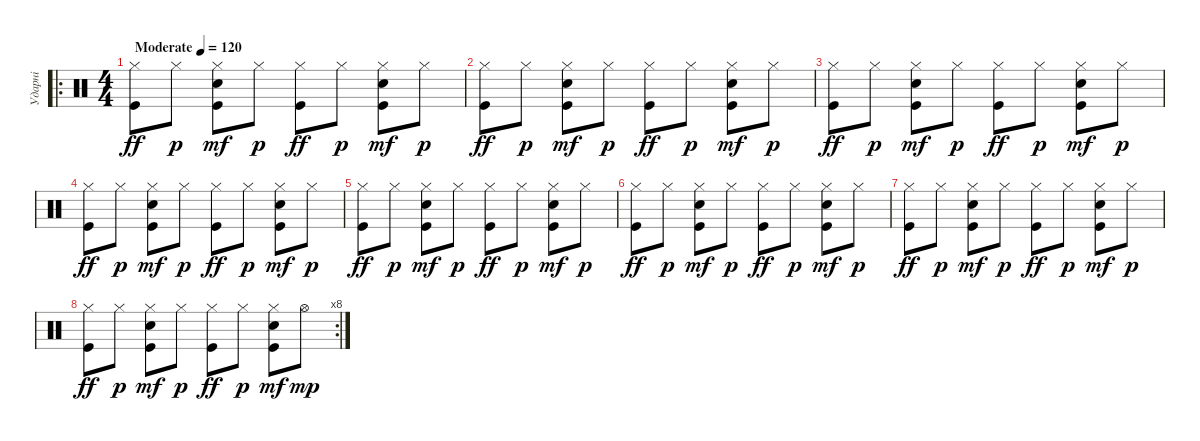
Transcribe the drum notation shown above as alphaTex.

\track ("Ударні" "Ударні") {instrument percussion}
\staff {score}
\articulation defaults
\ro
\ts (4 4)
\tempo (120 "Moderate")
\clef neutral
\ks c
("Hi-Hat (closed)" "Kick (hit)").8{dy ff} "Hi-Hat (closed)".8{dy p} ("Hi-Hat (closed)" "Snare (hit) 2" "Kick (hit)").8{dy mf} "Hi-Hat (closed)".8{dy p} ("Hi-Hat (closed)" "Kick (hit)").8{dy ff} "Hi-Hat (closed)".8{dy p} ("Hi-Hat (closed)" "Snare (hit) 2" "Kick (hit)").8{dy mf} "Hi-Hat (closed)".8{dy p} |
("Hi-Hat (closed)" "Kick (hit)").8{dy ff} "Hi-Hat (closed)".8{dy p} ("Hi-Hat (closed)" "Snare (hit) 2" "Kick (hit)").8{dy mf} "Hi-Hat (closed)".8{dy p} ("Hi-Hat (closed)" "Kick (hit)").8{dy ff} "Hi-Hat (closed)".8{dy p} ("Hi-Hat (closed)" "Snare (hit) 2" "Kick (hit)").8{dy mf} "Hi-Hat (closed)".8{dy p} |
("Hi-Hat (closed)" "Kick (hit)").8{dy ff} "Hi-Hat (closed)".8{dy p} ("Hi-Hat (closed)" "Snare (hit) 2" "Kick (hit)").8{dy mf} "Hi-Hat (closed)".8{dy p} ("Hi-Hat (closed)" "Kick (hit)").8{dy ff} "Hi-Hat (closed)".8{dy p} ("Hi-Hat (closed)" "Snare (hit) 2" "Kick (hit)").8{dy mf} "Hi-Hat (closed)".8{dy p} |
("Hi-Hat (closed)" "Kick (hit)").8{dy ff} "Hi-Hat (closed)".8{dy p} ("Hi-Hat (closed)" "Snare (hit) 2" "Kick (hit)").8{dy mf} "Hi-Hat (closed)".8{dy p} ("Hi-Hat (closed)" "Kick (hit)").8{dy ff} "Hi-Hat (closed)".8{dy p} ("Hi-Hat (closed)" "Snare (hit) 2" "Kick (hit)").8{dy mf} "Hi-Hat (closed)".8{dy p} |
("Hi-Hat (closed)" "Kick (hit)").8{dy ff} "Hi-Hat (closed)".8{dy p} ("Hi-Hat (closed)" "Snare (hit) 2" "Kick (hit)").8{dy mf} "Hi-Hat (closed)".8{dy p} ("Hi-Hat (closed)" "Kick (hit)").8{dy ff} "Hi-Hat (closed)".8{dy p} ("Hi-Hat (closed)" "Snare (hit) 2" "Kick (hit)").8{dy mf} "Hi-Hat (closed)".8{dy p} |
("Hi-Hat (closed)" "Kick (hit)").8{dy ff} "Hi-Hat (closed)".8{dy p} ("Hi-Hat (closed)" "Snare (hit) 2" "Kick (hit)").8{dy mf} "Hi-Hat (closed)".8{dy p} ("Hi-Hat (closed)" "Kick (hit)").8{dy ff} "Hi-Hat (closed)".8{dy p} ("Hi-Hat (closed)" "Snare (hit) 2" "Kick (hit)").8{dy mf} "Hi-Hat (closed)".8{dy p} |
("Hi-Hat (closed)" "Kick (hit)").8{dy ff} "Hi-Hat (closed)".8{dy p} ("Hi-Hat (closed)" "Snare (hit) 2" "Kick (hit)").8{dy mf} "Hi-Hat (closed)".8{dy p} ("Hi-Hat (closed)" "Kick (hit)").8{dy ff} "Hi-Hat (closed)".8{dy p} ("Hi-Hat (closed)" "Snare (hit) 2" "Kick (hit)").8{dy mf} "Hi-Hat (closed)".8{dy p} |
\rc 8
("Hi-Hat (closed)" "Kick (hit)").8{dy ff} "Hi-Hat (closed)".8{dy p} ("Hi-Hat (closed)" "Snare (hit) 2" "Kick (hit)").8{dy mf} "Hi-Hat (closed)".8{dy p} ("Hi-Hat (closed)" "Kick (hit)").8{dy ff} "Hi-Hat (closed)".8{dy p} ("Hi-Hat (closed)" "Snare (hit) 2" "Kick (hit)").8{dy mf} "Hi-Hat (open)".8{dy mp}
